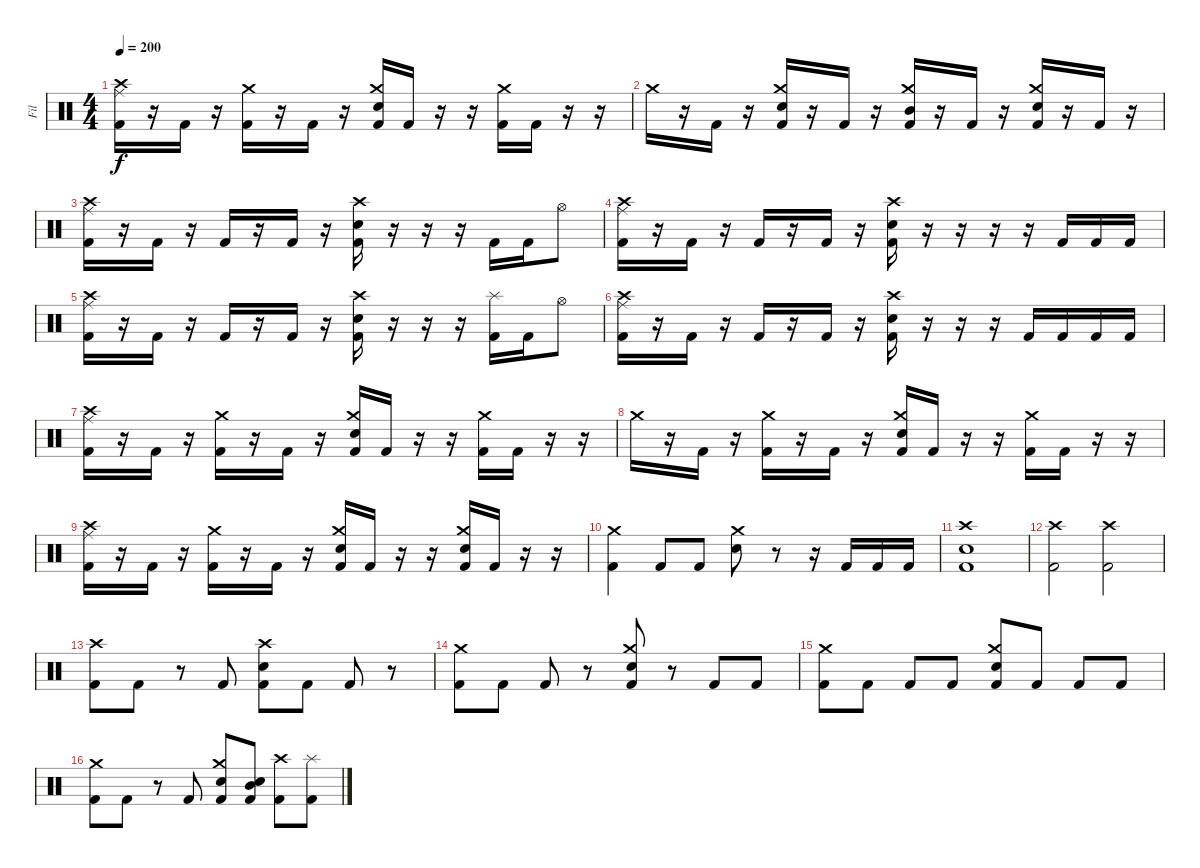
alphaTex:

\track ("Fil" "Fil") {instrument percussion}
\staff {score}
\articulation defaults
\ts (4 4)
\tempo 200
\clef neutral
\ks c
("Crash high (hit)" "Ride (middle)" "Kick (hit) 2").16{dy f} r.16 "Kick (hit) 2".16 r.16 ("Crash medium (hit)" "Kick (hit) 2").16 r.16 "Kick (hit) 2".16 r.16 ("Crash medium (hit)" "Electric Snare (hit)" "Kick (hit) 2").16 "Kick (hit) 2".16 r.16 r.16 ("Crash medium (hit)" "Kick (hit) 2").16 "Kick (hit) 2".16 r.16 r.16 |
"Crash medium (hit)".16 r.16 "Kick (hit) 2".16 r.16 ("Crash medium (hit)" "Electric Snare (hit)" "Kick (hit) 2").16 r.16 "Kick (hit) 2".16 r.16 ("Crash medium (hit)" "Mid Tom (hit)" "Kick (hit) 2").16 r.16 "Kick (hit) 2".16 r.16 ("Crash medium (hit)" "Electric Snare (hit)" "Kick (hit) 2").16 r.16 "Kick (hit) 2".16 r.16 |
("Crash high (hit)" "Ride (middle)" "Kick (hit) 2").16 r.16 "Kick (hit) 2".16 r.16 "Kick (hit) 2".16 r.16 "Kick (hit) 2".16 r.16 ("Crash high (hit)" "Electric Snare (hit)" "Kick (hit) 2").16 r.16 r.16 r.16 "Kick (hit) 2".16 "Kick (hit) 2".16 "Hi-Hat (open)".8 |
("Crash high (hit)" "Ride (middle)" "Kick (hit) 2").16 r.16 "Kick (hit) 2".16 r.16 "Kick (hit) 2".16 r.16 "Kick (hit) 2".16 r.16 ("Crash high (hit)" "Electric Snare (hit)" "Kick (hit) 2").16 r.16 r.16 r.16 r.16 "Kick (hit) 2".16 "Kick (hit) 2".16 "Kick (hit) 2".16 |
("Crash high (hit)" "Ride (middle)" "Kick (hit) 2").16 r.16 "Kick (hit) 2".16 r.16 "Kick (hit) 2".16 r.16 "Kick (hit) 2".16 r.16 ("Crash high (hit)" "Electric Snare (hit)" "Kick (hit) 2").16 r.16 r.16 r.16 ("Splash (hit)" "Kick (hit) 2").16 "Kick (hit) 2".16 "Hi-Hat (open)".8 |
("Crash high (hit)" "Ride (middle)" "Kick (hit) 2").16 r.16 "Kick (hit) 2".16 r.16 "Kick (hit) 2".16 r.16 "Kick (hit) 2".16 r.16 ("Crash high (hit)" "Electric Snare (hit)" "Kick (hit) 2").16 r.16 r.16 r.16 "Kick (hit) 2".16 "Kick (hit) 2".16 "Kick (hit) 2".16 "Kick (hit) 2".16 |
("Crash high (hit)" "Ride (middle)" "Kick (hit) 2").16 r.16 "Kick (hit) 2".16 r.16 ("Crash medium (hit)" "Kick (hit) 2").16 r.16 "Kick (hit) 2".16 r.16 ("Crash medium (hit)" "Electric Snare (hit)" "Kick (hit) 2").16 "Kick (hit) 2".16 r.16 r.16 ("Crash medium (hit)" "Kick (hit) 2").16 "Kick (hit) 2".16 r.16 r.16 |
"Crash medium (hit)".16 r.16 "Kick (hit) 2".16 r.16 ("Crash medium (hit)" "Kick (hit) 2").16 r.16 "Kick (hit) 2".16 r.16 ("Crash medium (hit)" "Electric Snare (hit)" "Kick (hit) 2").16 "Kick (hit) 2".16 r.16 r.16 ("Crash medium (hit)" "Kick (hit) 2").16 "Kick (hit) 2".16 r.16 r.16 |
("Crash high (hit)" "Ride (middle)" "Kick (hit) 2").16 r.16 "Kick (hit) 2".16 r.16 ("Crash medium (hit)" "Kick (hit) 2").16 r.16 "Kick (hit) 2".16 r.16 ("Crash medium (hit)" "Electric Snare (hit)" "Kick (hit) 2").16 "Kick (hit) 2".16 r.16 r.16 ("Crash medium (hit)" "Snare (hit) 2" "Kick (hit) 2").16 "Kick (hit) 2".16 r.16 r.16 |
("Crash medium (hit)" "Kick (hit) 2").4 "Kick (hit) 2".8 "Kick (hit) 2".8 ("Crash medium (hit)" "Electric Snare (hit)").8 r.8 r.16 "Kick (hit) 2".16 "Kick (hit) 2".16 "Kick (hit) 2".16 |
("Crash high (hit)" "Snare (hit) 2" "Kick (hit) 2").1 |
("Crash high (hit)" "Kick (hit) 2").2 ("Crash high (hit)" "Kick (hit) 2").2 |
("Crash high (hit)" "Kick (hit) 2").8 "Kick (hit) 2".8 r.8 "Kick (hit) 2".8 ("Crash high (hit)" "Electric Snare (hit)" "Kick (hit) 2").8 "Kick (hit) 2".8 "Kick (hit) 2".8 r.8 |
("Crash medium (hit)" "Kick (hit) 2").8 "Kick (hit) 2".8 "Kick (hit) 2".8 r.8 ("Crash medium (hit)" "Electric Snare (hit)" "Kick (hit) 2").8 r.8 "Kick (hit) 2".8 "Kick (hit) 2".8 |
("Crash medium (hit)" "Kick (hit) 2").8 "Kick (hit) 2".8 "Kick (hit) 2".8 "Kick (hit) 2".8 ("Crash medium (hit)" "Electric Snare (hit)" "Kick (hit) 2").8 "Kick (hit) 2".8 "Kick (hit) 2".8 "Kick (hit) 2".8 |
("Crash medium (hit)" "Kick (hit) 2").8 "Kick (hit) 2".8 r.8 "Kick (hit) 2".8 ("Crash medium (hit)" "Electric Snare (hit)" "Kick (hit) 2").8 ("Mid Tom (hit)" "Electric Snare (hit)" "Kick (hit) 2").8 ("Crash high (hit)" "Kick (hit) 2").8 ("Splash (hit)" "Kick (hit) 2").8
